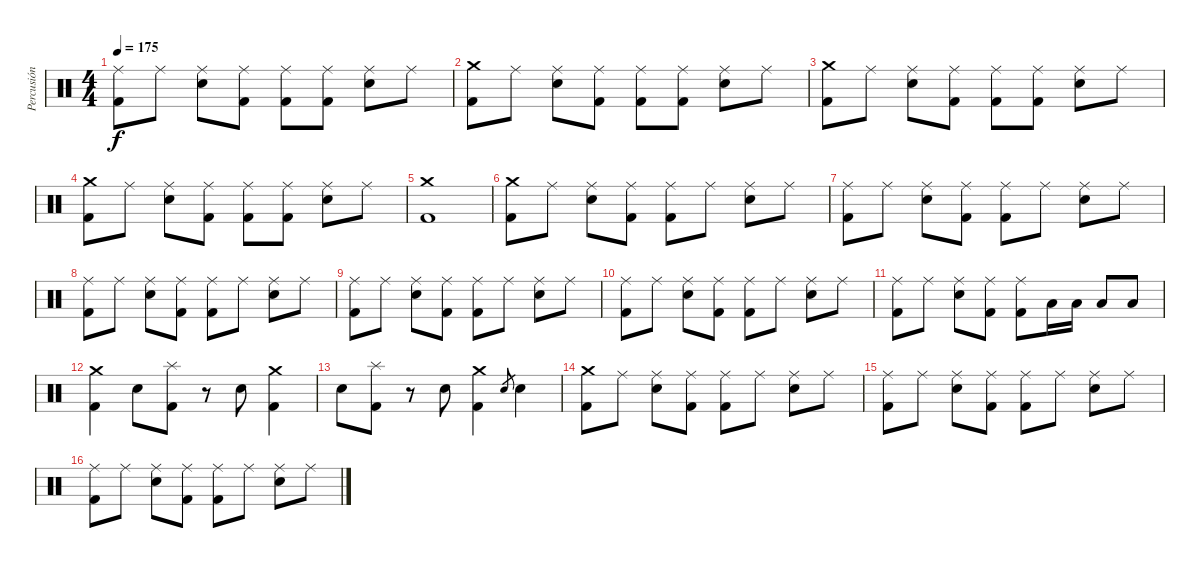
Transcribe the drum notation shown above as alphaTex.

\track ("Percusión" "Percusión") {instrument percussion}
\staff {score}
\articulation defaults
\ts (4 4)
\tempo 175
\clef neutral
\ks c
("Ride (middle)" "Kick (hit) 2").8{dy f} "Ride (middle)".8 ("Ride (middle)" "Electric Snare (hit)").8 ("Ride (middle)" "Kick (hit) 2").8 ("Kick (hit) 2" "Ride (middle)").8 ("Kick (hit) 2" "Ride (middle)").8 ("Electric Snare (hit)" "Ride (middle)").8 "Ride (middle)".8 |
("Crash medium (hit)" "Kick (hit) 2").8 "Ride (middle)".8 ("Ride (middle)" "Electric Snare (hit)").8 ("Ride (middle)" "Kick (hit) 2").8 ("Kick (hit) 2" "Ride (middle)").8 ("Kick (hit) 2" "Ride (middle)").8 ("Electric Snare (hit)" "Ride (middle)").8 "Ride (middle)".8 |
("Crash medium (hit)" "Kick (hit) 2").8 "Ride (middle)".8 ("Ride (middle)" "Electric Snare (hit)").8 ("Ride (middle)" "Kick (hit) 2").8 ("Kick (hit) 2" "Ride (middle)").8 ("Kick (hit) 2" "Ride (middle)").8 ("Electric Snare (hit)" "Ride (middle)").8 "Ride (middle)".8 |
("Crash medium (hit)" "Kick (hit) 2").8 "Ride (middle)".8 ("Ride (middle)" "Electric Snare (hit)").8 ("Ride (middle)" "Kick (hit) 2").8 ("Kick (hit) 2" "Ride (middle)").8 ("Kick (hit) 2" "Ride (middle)").8 ("Electric Snare (hit)" "Ride (middle)").8 "Ride (middle)".8 |
("Crash medium (hit)" "Kick (hit) 2").1 |
("Crash medium (hit)" "Kick (hit) 2").8 "Ride (middle)".8 ("Ride (middle)" "Electric Snare (hit)").8 ("Ride (middle)" "Kick (hit) 2").8 ("Kick (hit) 2" "Ride (middle)").8 "Ride (middle)".8 ("Electric Snare (hit)" "Ride (middle)").8 "Ride (middle)".8 |
("Ride (middle)" "Kick (hit) 2").8 "Ride (middle)".8 ("Ride (middle)" "Electric Snare (hit)").8 ("Ride (middle)" "Kick (hit) 2").8 ("Kick (hit) 2" "Ride (middle)").8 "Ride (middle)".8 ("Electric Snare (hit)" "Ride (middle)").8 "Ride (middle)".8 |
("Ride (middle)" "Kick (hit) 2").8 "Ride (middle)".8 ("Ride (middle)" "Electric Snare (hit)").8 ("Ride (middle)" "Kick (hit) 2").8 ("Kick (hit) 2" "Ride (middle)").8 "Ride (middle)".8 ("Electric Snare (hit)" "Ride (middle)").8 "Ride (middle)".8 |
("Ride (middle)" "Kick (hit) 2").8 "Ride (middle)".8 ("Ride (middle)" "Electric Snare (hit)").8 ("Ride (middle)" "Kick (hit) 2").8 ("Kick (hit) 2" "Ride (middle)").8 "Ride (middle)".8 ("Electric Snare (hit)" "Ride (middle)").8 "Ride (middle)".8 |
("Ride (middle)" "Kick (hit) 2").8 "Ride (middle)".8 ("Ride (middle)" "Electric Snare (hit)").8 ("Ride (middle)" "Kick (hit) 2").8 ("Kick (hit) 2" "Ride (middle)").8 "Ride (middle)".8 ("Electric Snare (hit)" "Ride (middle)").8 "Ride (middle)".8 |
("Ride (middle)" "Kick (hit) 2").8 "Ride (middle)".8 ("Ride (middle)" "Electric Snare (hit)").8 ("Ride (middle)" "Kick (hit) 2").8 ("Kick (hit) 2" "Ride (middle)").8 "Low Tom (hit)".16 "Low Floor Tom (hit)".16 "Low Floor Tom (hit)".8 "Low Floor Tom (hit)".8 |
("Crash medium (hit)" "Kick (hit) 2").4 "Electric Snare (hit)".8 ("Splash (hit)" "Kick (hit) 2").8 r.8 "Electric Snare (hit)".8 ("Crash medium (hit)" "Kick (hit) 2").4 |
"Electric Snare (hit)".8 ("Splash (hit)" "Kick (hit) 2").8 r.8 "Electric Snare (hit)".8 ("Crash medium (hit)" "Kick (hit) 2").4 "Electric Snare (hit)".8{gr} "Electric Snare (hit)".4 |
("Crash medium (hit)" "Kick (hit) 2").8 "Ride (middle)".8 ("Ride (middle)" "Electric Snare (hit)").8 ("Ride (middle)" "Kick (hit) 2").8 ("Kick (hit) 2" "Ride (middle)").8 "Ride (middle)".8 ("Electric Snare (hit)" "Ride (middle)").8 "Ride (middle)".8 |
("Ride (middle)" "Kick (hit) 2").8 "Ride (middle)".8 ("Ride (middle)" "Electric Snare (hit)").8 ("Ride (middle)" "Kick (hit) 2").8 ("Kick (hit) 2" "Ride (middle)").8 "Ride (middle)".8 ("Electric Snare (hit)" "Ride (middle)").8 "Ride (middle)".8 |
("Ride (middle)" "Kick (hit) 2").8 "Ride (middle)".8 ("Ride (middle)" "Electric Snare (hit)").8 ("Ride (middle)" "Kick (hit) 2").8 ("Kick (hit) 2" "Ride (middle)").8 "Ride (middle)".8 ("Electric Snare (hit)" "Ride (middle)").8 "Ride (middle)".8
